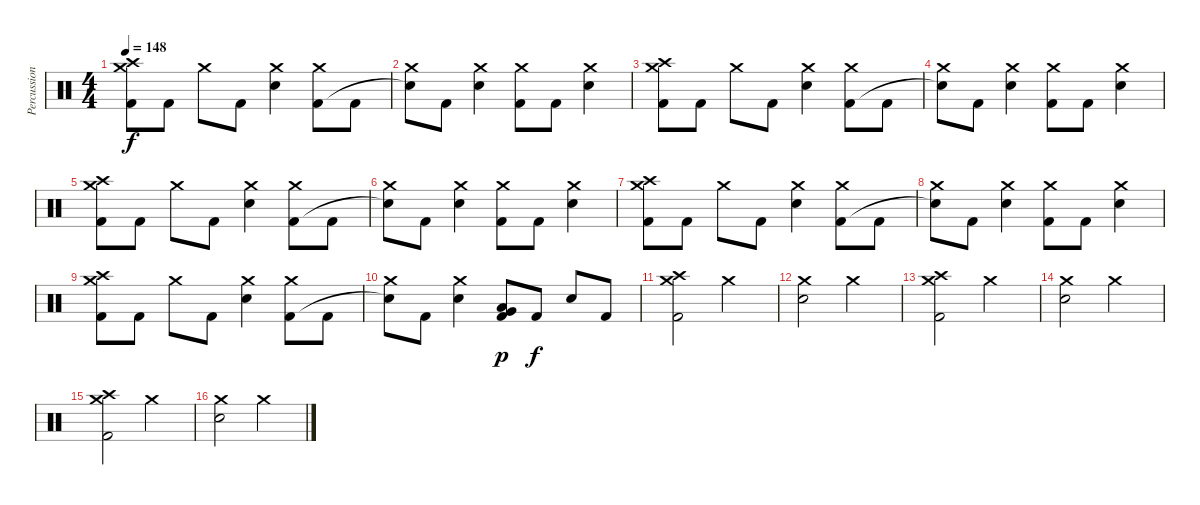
\track ("Percussion" "Percussion") {instrument percussion}
\staff {score}
\articulation defaults
\ts (4 4)
\tempo 148
\clef neutral
\ks c
("Crash medium (hit)" "Crash high (hit)" "Kick (hit) 2").8{dy f} "Kick (hit) 2".8 "Crash medium (hit)".8 "Kick (hit) 2".8 ("Crash medium (hit)" "Electric Snare (hit)").4 ("Crash medium (hit)" "Kick (hit) 2").8 "Kick (hit) 2".8 |
("Crash medium (hit)" "Snare (hit)"{t}).8 "Kick (hit) 2".8 ("Crash medium (hit)" "Electric Snare (hit)").4 ("Crash medium (hit)" "Kick (hit) 2").8 "Kick (hit) 2".8 ("Crash medium (hit)" "Electric Snare (hit)").4 |
("Crash medium (hit)" "Crash high (hit)" "Kick (hit) 2").8 "Kick (hit) 2".8 "Crash medium (hit)".8 "Kick (hit) 2".8 ("Crash medium (hit)" "Electric Snare (hit)").4 ("Crash medium (hit)" "Kick (hit) 2").8 "Kick (hit) 2".8 |
("Crash medium (hit)" "Snare (hit)"{t}).8 "Kick (hit) 2".8 ("Crash medium (hit)" "Electric Snare (hit)").4 ("Crash medium (hit)" "Kick (hit) 2").8 "Kick (hit) 2".8 ("Crash medium (hit)" "Electric Snare (hit)").4 |
("Crash medium (hit)" "Crash high (hit)" "Kick (hit) 2").8 "Kick (hit) 2".8 "Crash medium (hit)".8 "Kick (hit) 2".8 ("Crash medium (hit)" "Electric Snare (hit)").4 ("Crash medium (hit)" "Kick (hit) 2").8 "Kick (hit) 2".8 |
("Crash medium (hit)" "Snare (hit)"{t}).8 "Kick (hit) 2".8 ("Crash medium (hit)" "Electric Snare (hit)").4 ("Crash medium (hit)" "Kick (hit) 2").8 "Kick (hit) 2".8 ("Crash medium (hit)" "Electric Snare (hit)").4 |
("Crash medium (hit)" "Crash high (hit)" "Kick (hit) 2").8 "Kick (hit) 2".8 "Crash medium (hit)".8 "Kick (hit) 2".8 ("Crash medium (hit)" "Electric Snare (hit)").4 ("Crash medium (hit)" "Kick (hit) 2").8 "Kick (hit) 2".8 |
("Crash medium (hit)" "Snare (hit)"{t}).8 "Kick (hit) 2".8 ("Crash medium (hit)" "Electric Snare (hit)").4 ("Crash medium (hit)" "Kick (hit) 2").8 "Kick (hit) 2".8 ("Crash medium (hit)" "Electric Snare (hit)").4 |
("Crash medium (hit)" "Crash high (hit)" "Kick (hit) 2").8 "Kick (hit) 2".8 "Crash medium (hit)".8 "Kick (hit) 2".8 ("Crash medium (hit)" "Electric Snare (hit)").4 ("Crash medium (hit)" "Kick (hit) 2").8 "Kick (hit) 2".8 |
("Crash medium (hit)" "Snare (hit)"{t}).8 "Kick (hit) 2".8 ("Crash medium (hit)" "Electric Snare (hit)").4 ("Very Low Tom (hit)" "Low Tom (hit)" "Kick (hit) 2").8{dy p} "Kick (hit) 2".8{dy f} "Electric Snare (hit)".8 "Kick (hit) 2".8 |
("Crash medium (hit)" "Crash high (hit)" "Kick (hit) 2").2 "Crash medium (hit)".2 |
("Crash medium (hit)" "Electric Snare (hit)").2 "Crash medium (hit)".2 |
("Crash medium (hit)" "Crash high (hit)" "Kick (hit) 2").2 "Crash medium (hit)".2 |
("Crash medium (hit)" "Electric Snare (hit)").2 "Crash medium (hit)".2 |
("Crash medium (hit)" "Crash high (hit)" "Kick (hit) 2").2 "Crash medium (hit)".2 |
("Crash medium (hit)" "Electric Snare (hit)").2 "Crash medium (hit)".2
